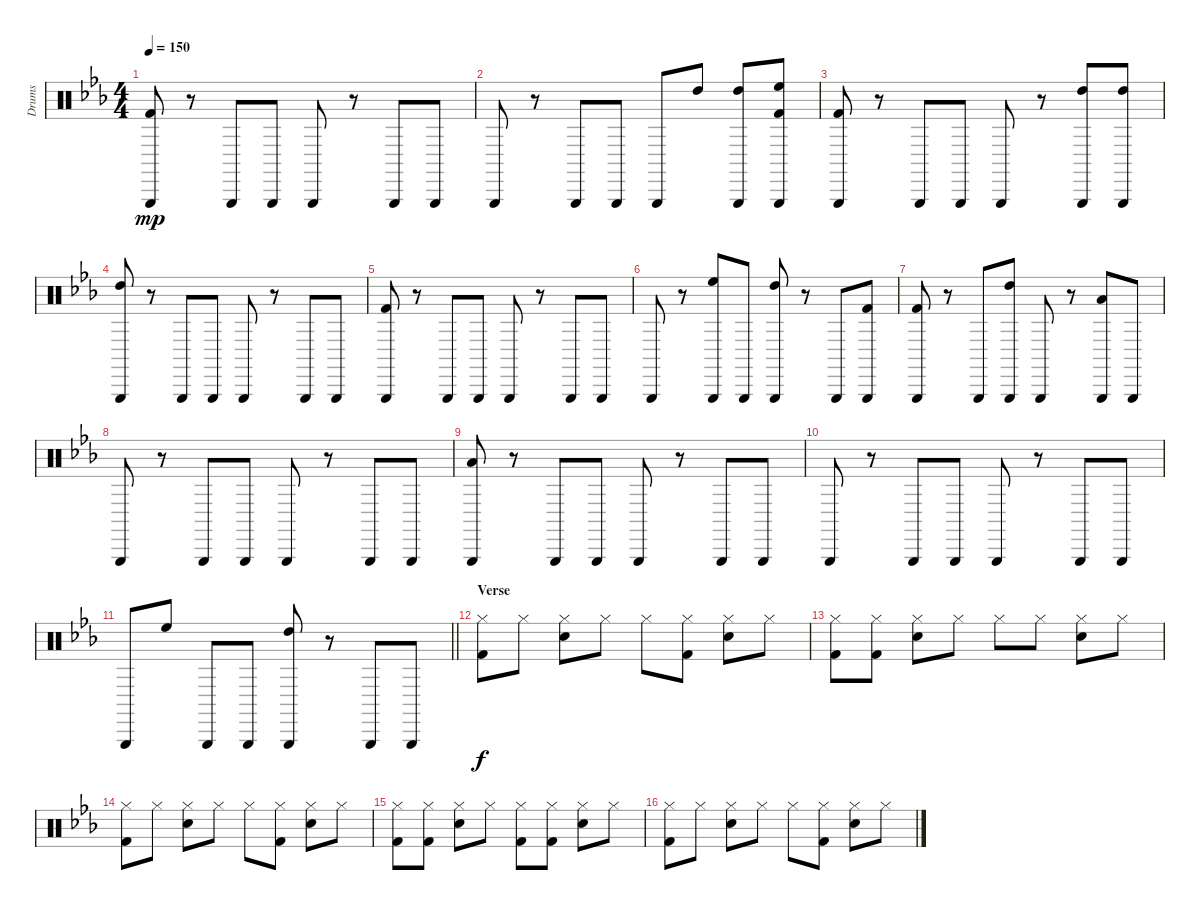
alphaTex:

\track ("Drums" "Drums") {instrument percussion}
\staff {score}
\articulation defaults
\ts (4 4)
\tempo 150
\clef neutral
\ks eb
("Triangle (hit)" "Kick (hit) 2").8{dy mp} r.8 "Triangle (hit)".8 "Triangle (hit)".8 "Triangle (hit)".8 r.8 "Triangle (hit)".8 "Triangle (hit)".8 |
"Triangle (hit)".8 r.8 "Triangle (hit)".8 "Triangle (hit)".8 "Triangle (hit)".8 "High Tom (hit)".8 ("Triangle (hit)" "High Tom (hit)").8 ("Triangle (hit)" "High Floor Tom (hit)" "Kick (hit) 2").8 |
("Triangle (hit)" "Kick (hit) 2").8 r.8 "Triangle (hit)".8 "Triangle (hit)".8 "Triangle (hit)".8 r.8 ("Triangle (hit)" "High Tom (hit)").8 ("Triangle (hit)" "High Tom (hit)").8 |
("Triangle (hit)" "High Tom (hit)").8 r.8 "Triangle (hit)".8 "Triangle (hit)".8 "Triangle (hit)".8 r.8 "Triangle (hit)".8 "Triangle (hit)".8 |
("Triangle (hit)" "Kick (hit) 2").8 r.8 "Triangle (hit)".8 "Triangle (hit)".8 "Triangle (hit)".8 r.8 "Triangle (hit)".8 "Triangle (hit)".8 |
"Triangle (hit)".8 r.8 ("Triangle (hit)" "High Floor Tom (hit)").8 "Triangle (hit)".8 ("Triangle (hit)" "High Tom (hit)").8 r.8 "Triangle (hit)".8 ("Triangle (hit)" "Kick (hit) 2").8 |
("Triangle (hit)" "Kick (hit) 2").8 r.8 "Triangle (hit)".8 ("Triangle (hit)" "High Tom (hit)").8 "Triangle (hit)".8 r.8 ("Triangle (hit)" "Low Tom (hit)").8 "Triangle (hit)".8 |
"Triangle (hit)".8 r.8 "Triangle (hit)".8 "Triangle (hit)".8 "Triangle (hit)".8 r.8 "Triangle (hit)".8 "Triangle (hit)".8 |
("Triangle (hit)" "Low Floor Tom (hit)").8 r.8 "Triangle (hit)".8 "Triangle (hit)".8 "Triangle (hit)".8 r.8 "Triangle (hit)".8 "Triangle (hit)".8 |
"Triangle (hit)".8 r.8 "Triangle (hit)".8 "Triangle (hit)".8 "Triangle (hit)".8 r.8 "Triangle (hit)".8 "Triangle (hit)".8 |
\barLineRight lightlight "Triangle (hit)".8 "High Floor Tom (hit)".8 "Triangle (hit)".8 "Triangle (hit)".8
("Triangle (hit)" "High Tom (hit)").8 r.8 "Triangle (hit)".8 "Triangle (hit)".8 |
\section ("" "Verse")
("Hi-Hat (closed)" "Kick (hit) 2").8{dy f} "Hi-Hat (closed)".8 ("Hi-Hat (closed)" "Electric Snare (hit)").8 "Hi-Hat (closed)".8 "Hi-Hat (closed)".8 ("Hi-Hat (closed)" "Kick (hit) 2").8 ("Hi-Hat (closed)" "Electric Snare (hit)").8 "Hi-Hat (closed)".8 |
("Hi-Hat (closed)" "Kick (hit) 2").8 ("Hi-Hat (closed)" "Kick (hit) 2").8 ("Hi-Hat (closed)" "Electric Snare (hit)").8 "Hi-Hat (closed)".8 "Hi-Hat (closed)".8 "Hi-Hat (closed)".8 ("Hi-Hat (closed)" "Electric Snare (hit)").8 "Hi-Hat (closed)".8 |
("Hi-Hat (closed)" "Kick (hit) 2").8 "Hi-Hat (closed)".8 ("Hi-Hat (closed)" "Electric Snare (hit)").8 "Hi-Hat (closed)".8 "Hi-Hat (closed)".8 ("Hi-Hat (closed)" "Kick (hit) 2").8 ("Hi-Hat (closed)" "Electric Snare (hit)").8 "Hi-Hat (closed)".8 |
("Hi-Hat (closed)" "Kick (hit) 2").8 ("Hi-Hat (closed)" "Kick (hit) 2").8 ("Hi-Hat (closed)" "Electric Snare (hit)").8 "Hi-Hat (closed)".8 ("Hi-Hat (closed)" "Kick (hit) 2").8 ("Hi-Hat (closed)" "Kick (hit) 2").8 ("Hi-Hat (closed)" "Electric Snare (hit)").8 "Hi-Hat (closed)".8 |
("Hi-Hat (closed)" "Kick (hit) 2").8 "Hi-Hat (closed)".8 ("Hi-Hat (closed)" "Electric Snare (hit)").8 "Hi-Hat (closed)".8 "Hi-Hat (closed)".8 ("Hi-Hat (closed)" "Kick (hit) 2").8 ("Hi-Hat (closed)" "Electric Snare (hit)").8 "Hi-Hat (closed)".8
